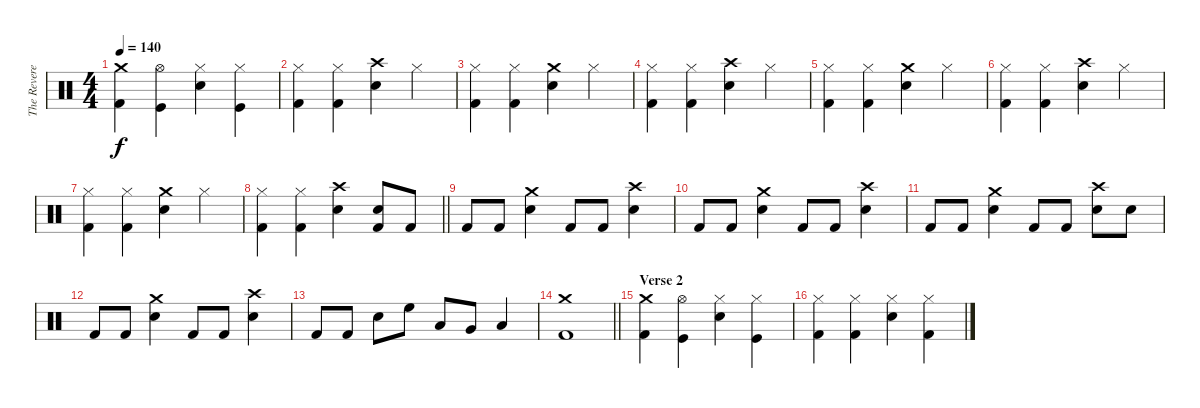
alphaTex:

\track ("The Reverend" "The Revere") {instrument percussion}
\staff {score}
\articulation defaults
\ts (4 4)
\tempo 140
\clef neutral
\ks c
("Crash medium (hit)" "Kick (hit) 2").4{dy f} ("Hi-Hat (open)" "Kick (hit)").4 ("Hi-Hat (closed)" "Snare (hit) 2").4 ("Hi-Hat (closed)" "Kick (hit)").4 |
("Hi-Hat (closed)" "Kick (hit) 2").4 ("Hi-Hat (closed)" "Kick (hit) 2").4 ("Crash high (hit)" "Snare (hit) 2").4 "Hi-Hat (closed)".4 |
("Hi-Hat (closed)" "Kick (hit) 2").4 ("Hi-Hat (closed)" "Kick (hit) 2").4 ("Crash medium (hit)" "Snare (hit) 2").4 "Hi-Hat (closed)".4 |
("Hi-Hat (closed)" "Kick (hit) 2").4 ("Hi-Hat (closed)" "Kick (hit) 2").4 ("Crash high (hit)" "Snare (hit) 2").4 "Hi-Hat (closed)".4 |
("Hi-Hat (closed)" "Kick (hit) 2").4 ("Hi-Hat (closed)" "Kick (hit) 2").4 ("Crash medium (hit)" "Snare (hit) 2").4 "Hi-Hat (closed)".4 |
("Hi-Hat (closed)" "Kick (hit) 2").4 ("Hi-Hat (closed)" "Kick (hit) 2").4 ("Crash high (hit)" "Snare (hit) 2").4 "Hi-Hat (closed)".4 |
("Hi-Hat (closed)" "Kick (hit) 2").4 ("Hi-Hat (closed)" "Kick (hit) 2").4 ("Crash medium (hit)" "Snare (hit) 2").4 "Hi-Hat (closed)".4 |
\barLineRight lightlight
("Hi-Hat (closed)" "Kick (hit) 2").4 ("Hi-Hat (closed)" "Kick (hit) 2").4 ("Crash high (hit)" "Snare (hit) 2").4 ("Snare (hit) 2" "Kick (hit) 2").8 "Kick (hit) 2".8 |
"Kick (hit) 2".8 "Kick (hit) 2".8 ("Crash medium (hit)" "Snare (hit) 2").4 "Kick (hit) 2".8 "Kick (hit) 2".8 ("Crash high (hit)" "Snare (hit) 2").4 |
"Kick (hit) 2".8 "Kick (hit) 2".8 ("Crash medium (hit)" "Snare (hit) 2").4 "Kick (hit) 2".8 "Kick (hit) 2".8 ("Crash high (hit)" "Snare (hit) 2").4 |
"Kick (hit) 2".8 "Kick (hit) 2".8 ("Crash medium (hit)" "Snare (hit) 2").4 "Kick (hit) 2".8 "Kick (hit) 2".8 ("Crash high (hit)" "Snare (hit) 2").8 "Snare (hit) 2".8 |
"Kick (hit) 2".8 "Kick (hit) 2".8 ("Crash medium (hit)" "Snare (hit) 2").4 "Kick (hit) 2".8 "Kick (hit) 2".8 ("Crash high (hit)" "Snare (hit) 2").4 |
"Kick (hit) 2".8 "Kick (hit) 2".8 "Snare (hit) 2".8 "High Floor Tom (hit)".8 "Low Tom (hit)".8 "Very Low Tom (hit)".8 "Low Floor Tom (hit)".4 |
\barLineRight lightlight
("Crash medium (hit)" "Kick (hit) 2").1 |
\section ("" "Verse 2")
("Crash medium (hit)" "Kick (hit) 2").4 ("Hi-Hat (open)" "Kick (hit)").4 ("Hi-Hat (closed)" "Snare (hit) 2").4 ("Hi-Hat (closed)" "Kick (hit)").4 |
("Hi-Hat (closed)" "Kick (hit) 2").4 ("Hi-Hat (closed)" "Kick (hit) 2").4 ("Hi-Hat (closed)" "Snare (hit) 2").4 ("Hi-Hat (closed)" "Kick (hit) 2").4
